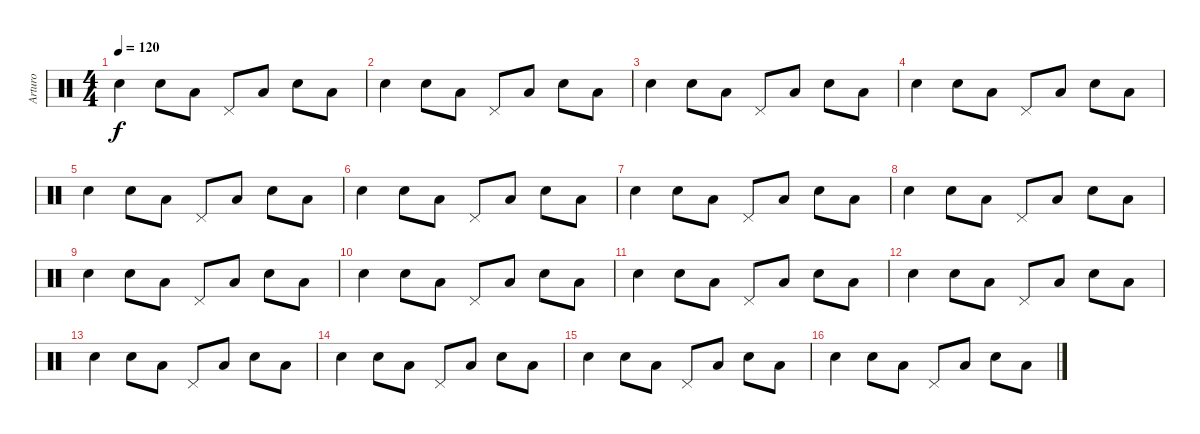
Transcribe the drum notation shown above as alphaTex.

\track ("Arturo" "Arturo") {instrument percussion}
\staff {score}
\articulation defaults
\ts (4 4)
\tempo 120
\clef neutral
\ks c "Snare (hit) 2".4{dy f} "Snare (hit) 2".8 "Low Tom (hit)".8 "Pedal Hi-Hat (hit)".8 "Low Tom (hit)".8 "Snare (hit) 2".8 "Low Tom (hit)".8
|
"Snare (hit) 2".4 "Snare (hit) 2".8 "Low Tom (hit)".8 "Pedal Hi-Hat (hit)".8 "Low Tom (hit)".8 "Snare (hit) 2".8 "Low Tom (hit)".8 |
"Snare (hit) 2".4 "Snare (hit) 2".8 "Low Tom (hit)".8 "Pedal Hi-Hat (hit)".8 "Low Tom (hit)".8 "Snare (hit) 2".8 "Low Tom (hit)".8 |
"Snare (hit) 2".4 "Snare (hit) 2".8 "Low Tom (hit)".8 "Pedal Hi-Hat (hit)".8 "Low Tom (hit)".8 "Snare (hit) 2".8 "Low Tom (hit)".8 |
"Snare (hit) 2".4 "Snare (hit) 2".8 "Low Tom (hit)".8 "Pedal Hi-Hat (hit)".8 "Low Tom (hit)".8 "Snare (hit) 2".8 "Low Tom (hit)".8 |
"Snare (hit) 2".4 "Snare (hit) 2".8 "Low Tom (hit)".8 "Pedal Hi-Hat (hit)".8 "Low Tom (hit)".8 "Snare (hit) 2".8 "Low Tom (hit)".8 |
"Snare (hit) 2".4 "Snare (hit) 2".8 "Low Tom (hit)".8 "Pedal Hi-Hat (hit)".8 "Low Tom (hit)".8 "Snare (hit) 2".8 "Low Tom (hit)".8 |
"Snare (hit) 2".4 "Snare (hit) 2".8 "Low Tom (hit)".8 "Pedal Hi-Hat (hit)".8 "Low Tom (hit)".8 "Snare (hit) 2".8 "Low Tom (hit)".8 |
"Snare (hit) 2".4 "Snare (hit) 2".8 "Low Tom (hit)".8 "Pedal Hi-Hat (hit)".8 "Low Tom (hit)".8 "Snare (hit) 2".8 "Low Tom (hit)".8 |
"Snare (hit) 2".4 "Snare (hit) 2".8 "Low Tom (hit)".8 "Pedal Hi-Hat (hit)".8 "Low Tom (hit)".8 "Snare (hit) 2".8 "Low Tom (hit)".8 |
"Snare (hit) 2".4 "Snare (hit) 2".8 "Low Tom (hit)".8 "Pedal Hi-Hat (hit)".8 "Low Tom (hit)".8 "Snare (hit) 2".8 "Low Tom (hit)".8 |
"Snare (hit) 2".4 "Snare (hit) 2".8 "Low Tom (hit)".8 "Pedal Hi-Hat (hit)".8 "Low Tom (hit)".8 "Snare (hit) 2".8 "Low Tom (hit)".8 |
"Snare (hit) 2".4 "Snare (hit) 2".8 "Low Tom (hit)".8 "Pedal Hi-Hat (hit)".8 "Low Tom (hit)".8 "Snare (hit) 2".8 "Low Tom (hit)".8 |
"Snare (hit) 2".4 "Snare (hit) 2".8 "Low Tom (hit)".8 "Pedal Hi-Hat (hit)".8 "Low Tom (hit)".8 "Snare (hit) 2".8 "Low Tom (hit)".8 |
"Snare (hit) 2".4 "Snare (hit) 2".8 "Low Tom (hit)".8 "Pedal Hi-Hat (hit)".8 "Low Tom (hit)".8 "Snare (hit) 2".8 "Low Tom (hit)".8 |
"Snare (hit) 2".4 "Snare (hit) 2".8 "Low Tom (hit)".8 "Pedal Hi-Hat (hit)".8 "Low Tom (hit)".8 "Snare (hit) 2".8 "Low Tom (hit)".8
